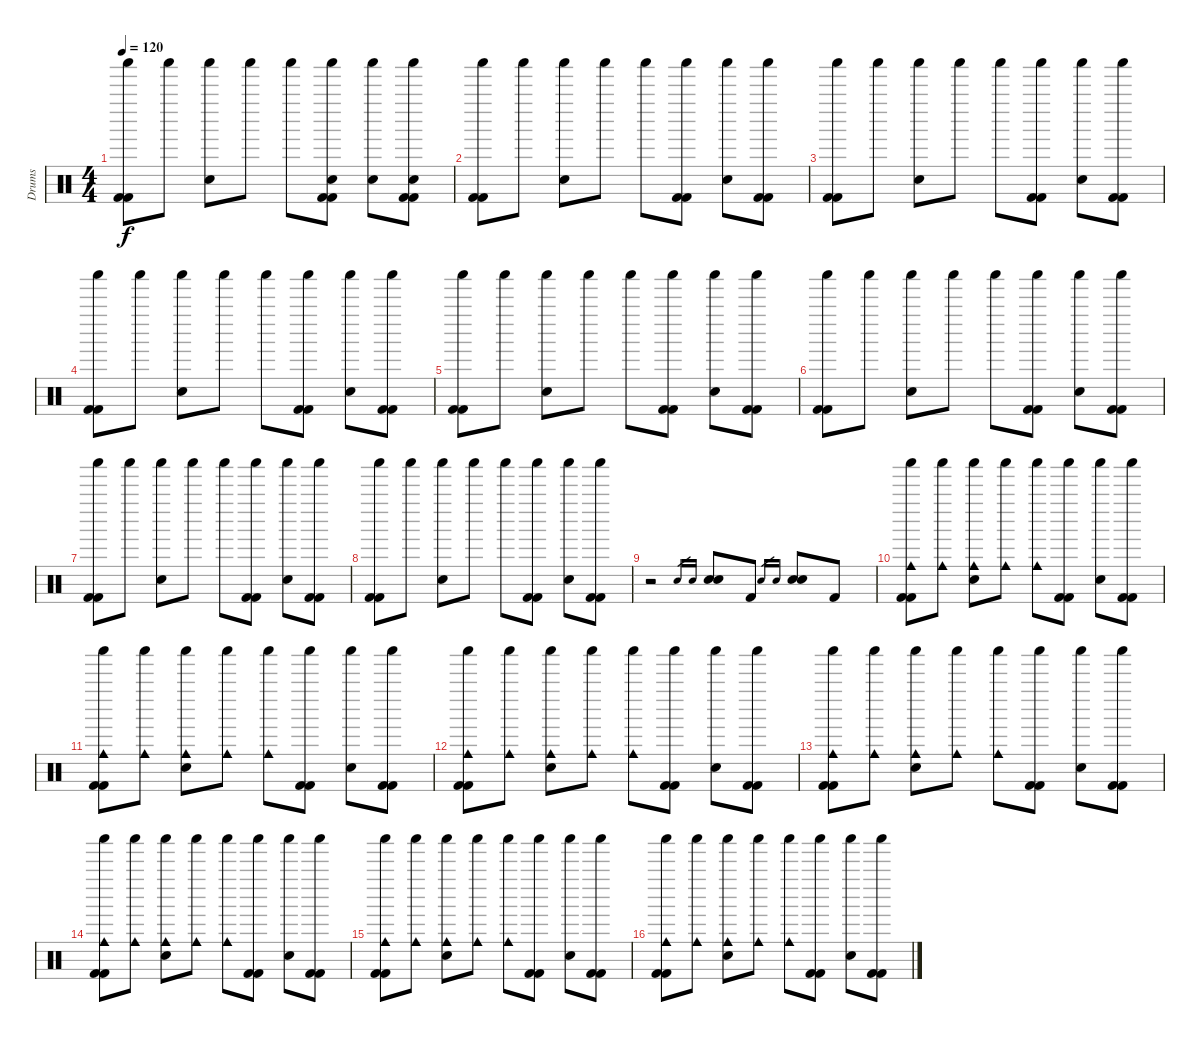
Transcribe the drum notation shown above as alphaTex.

\track ("Drums" "Drums") {instrument percussion}
\staff {score}
\articulation defaults
\ts (4 4)
\tempo 120
\clef neutral
\ks c
("Shaker (hit)" "Kick (hit) 2" "Kick (hit) 2").8{dy f} "Shaker (hit)".8 ("Shaker (hit)" "Electric Snare (hit)").8 "Shaker (hit)".8 "Shaker (hit)".8 ("Shaker (hit)" "Electric Snare (hit)" "Kick (hit) 2" "Kick (hit) 2").8 ("Shaker (hit)" "Electric Snare (hit)").8 ("Shaker (hit)" "Electric Snare (hit)" "Kick (hit) 2" "Kick (hit) 2").8 |
("Shaker (hit)" "Kick (hit) 2" "Kick (hit) 2").8 "Shaker (hit)".8 ("Shaker (hit)" "Electric Snare (hit)").8 "Shaker (hit)".8 "Shaker (hit)".8 ("Shaker (hit)" "Kick (hit) 2" "Kick (hit) 2").8 ("Shaker (hit)" "Electric Snare (hit)").8 ("Shaker (hit)" "Kick (hit) 2" "Kick (hit) 2").8 |
("Shaker (hit)" "Kick (hit) 2" "Kick (hit) 2").8 "Shaker (hit)".8 ("Shaker (hit)" "Electric Snare (hit)").8 "Shaker (hit)".8 "Shaker (hit)".8 ("Shaker (hit)" "Kick (hit) 2" "Kick (hit) 2").8 ("Shaker (hit)" "Electric Snare (hit)").8 ("Shaker (hit)" "Kick (hit) 2" "Kick (hit) 2").8 |
("Shaker (hit)" "Kick (hit) 2" "Kick (hit) 2").8 "Shaker (hit)".8 ("Shaker (hit)" "Electric Snare (hit)").8 "Shaker (hit)".8 "Shaker (hit)".8 ("Shaker (hit)" "Kick (hit) 2" "Kick (hit) 2").8 ("Shaker (hit)" "Electric Snare (hit)").8 ("Shaker (hit)" "Kick (hit) 2" "Kick (hit) 2").8 |
("Shaker (hit)" "Kick (hit) 2" "Kick (hit) 2").8 "Shaker (hit)".8 ("Shaker (hit)" "Electric Snare (hit)").8 "Shaker (hit)".8 "Shaker (hit)".8 ("Shaker (hit)" "Kick (hit) 2" "Kick (hit) 2").8 ("Shaker (hit)" "Electric Snare (hit)").8 ("Shaker (hit)" "Kick (hit) 2" "Kick (hit) 2").8 |
("Shaker (hit)" "Kick (hit) 2" "Kick (hit) 2").8 "Shaker (hit)".8 ("Shaker (hit)" "Electric Snare (hit)").8 "Shaker (hit)".8 "Shaker (hit)".8 ("Shaker (hit)" "Kick (hit) 2" "Kick (hit) 2").8 ("Shaker (hit)" "Electric Snare (hit)").8 ("Shaker (hit)" "Kick (hit) 2" "Kick (hit) 2").8 |
("Shaker (hit)" "Kick (hit) 2" "Kick (hit) 2").8 "Shaker (hit)".8 ("Shaker (hit)" "Electric Snare (hit)").8 "Shaker (hit)".8 "Shaker (hit)".8 ("Shaker (hit)" "Kick (hit) 2" "Kick (hit) 2").8 ("Shaker (hit)" "Electric Snare (hit)").8 ("Shaker (hit)" "Kick (hit) 2" "Kick (hit) 2").8 |
("Shaker (hit)" "Kick (hit) 2" "Kick (hit) 2").8 "Shaker (hit)".8 ("Shaker (hit)" "Electric Snare (hit)").8 "Shaker (hit)".8 "Shaker (hit)".8 ("Shaker (hit)" "Kick (hit) 2" "Kick (hit) 2").8 ("Shaker (hit)" "Electric Snare (hit)").8 ("Shaker (hit)" "Kick (hit) 2" "Kick (hit) 2").8 |
r.2 "Electric Snare (hit)".16{gr} "Electric Snare (hit)".16{gr} ("Electric Snare (hit)" "Electric Snare (hit)").8 "Kick (hit) 2".8 "Electric Snare (hit)".16{gr} "Electric Snare (hit)".16{gr} ("Electric Snare (hit)" "Electric Snare (hit)").8 "Kick (hit) 2".8 |
("Shaker (hit)" "Cowbell medium (hit)" "Kick (hit) 2" "Kick (hit) 2").8 ("Shaker (hit)" "Cowbell medium (hit)").8 ("Shaker (hit)" "Cowbell medium (hit)" "Electric Snare (hit)").8 ("Shaker (hit)" "Cowbell medium (hit)").8 ("Shaker (hit)" "Cowbell medium (hit)").8 ("Shaker (hit)" "Kick (hit) 2" "Kick (hit) 2").8 ("Shaker (hit)" "Electric Snare (hit)").8 ("Shaker (hit)" "Kick (hit) 2" "Kick (hit) 2").8 |
("Shaker (hit)" "Cowbell medium (hit)" "Kick (hit) 2" "Kick (hit) 2").8 ("Shaker (hit)" "Cowbell medium (hit)").8 ("Shaker (hit)" "Cowbell medium (hit)" "Electric Snare (hit)").8 ("Shaker (hit)" "Cowbell medium (hit)").8 ("Shaker (hit)" "Cowbell medium (hit)").8 ("Shaker (hit)" "Kick (hit) 2" "Kick (hit) 2").8 ("Shaker (hit)" "Electric Snare (hit)").8 ("Shaker (hit)" "Kick (hit) 2" "Kick (hit) 2").8 |
("Shaker (hit)" "Cowbell medium (hit)" "Kick (hit) 2" "Kick (hit) 2").8 ("Shaker (hit)" "Cowbell medium (hit)").8 ("Shaker (hit)" "Cowbell medium (hit)" "Electric Snare (hit)").8 ("Shaker (hit)" "Cowbell medium (hit)").8 ("Shaker (hit)" "Cowbell medium (hit)").8 ("Shaker (hit)" "Kick (hit) 2" "Kick (hit) 2").8 ("Shaker (hit)" "Electric Snare (hit)").8 ("Shaker (hit)" "Kick (hit) 2" "Kick (hit) 2").8 |
("Shaker (hit)" "Cowbell medium (hit)" "Kick (hit) 2" "Kick (hit) 2").8 ("Shaker (hit)" "Cowbell medium (hit)").8 ("Shaker (hit)" "Cowbell medium (hit)" "Electric Snare (hit)").8 ("Shaker (hit)" "Cowbell medium (hit)").8 ("Shaker (hit)" "Cowbell medium (hit)").8 ("Shaker (hit)" "Kick (hit) 2" "Kick (hit) 2").8 ("Shaker (hit)" "Electric Snare (hit)").8 ("Shaker (hit)" "Kick (hit) 2" "Kick (hit) 2").8 |
("Shaker (hit)" "Cowbell medium (hit)" "Kick (hit) 2" "Kick (hit) 2").8 ("Shaker (hit)" "Cowbell medium (hit)").8 ("Shaker (hit)" "Cowbell medium (hit)" "Electric Snare (hit)").8 ("Shaker (hit)" "Cowbell medium (hit)").8 ("Shaker (hit)" "Cowbell medium (hit)").8 ("Shaker (hit)" "Kick (hit) 2" "Kick (hit) 2").8 ("Shaker (hit)" "Electric Snare (hit)").8 ("Shaker (hit)" "Kick (hit) 2" "Kick (hit) 2").8 |
("Shaker (hit)" "Cowbell medium (hit)" "Kick (hit) 2" "Kick (hit) 2").8 ("Shaker (hit)" "Cowbell medium (hit)").8 ("Shaker (hit)" "Cowbell medium (hit)" "Electric Snare (hit)").8 ("Shaker (hit)" "Cowbell medium (hit)").8 ("Shaker (hit)" "Cowbell medium (hit)").8 ("Shaker (hit)" "Kick (hit) 2" "Kick (hit) 2").8 ("Shaker (hit)" "Electric Snare (hit)").8 ("Shaker (hit)" "Kick (hit) 2" "Kick (hit) 2").8 |
("Shaker (hit)" "Cowbell medium (hit)" "Kick (hit) 2" "Kick (hit) 2").8 ("Shaker (hit)" "Cowbell medium (hit)").8 ("Shaker (hit)" "Cowbell medium (hit)" "Electric Snare (hit)").8 ("Shaker (hit)" "Cowbell medium (hit)").8 ("Shaker (hit)" "Cowbell medium (hit)").8 ("Shaker (hit)" "Kick (hit) 2" "Kick (hit) 2").8 ("Shaker (hit)" "Electric Snare (hit)").8 ("Shaker (hit)" "Kick (hit) 2" "Kick (hit) 2").8
